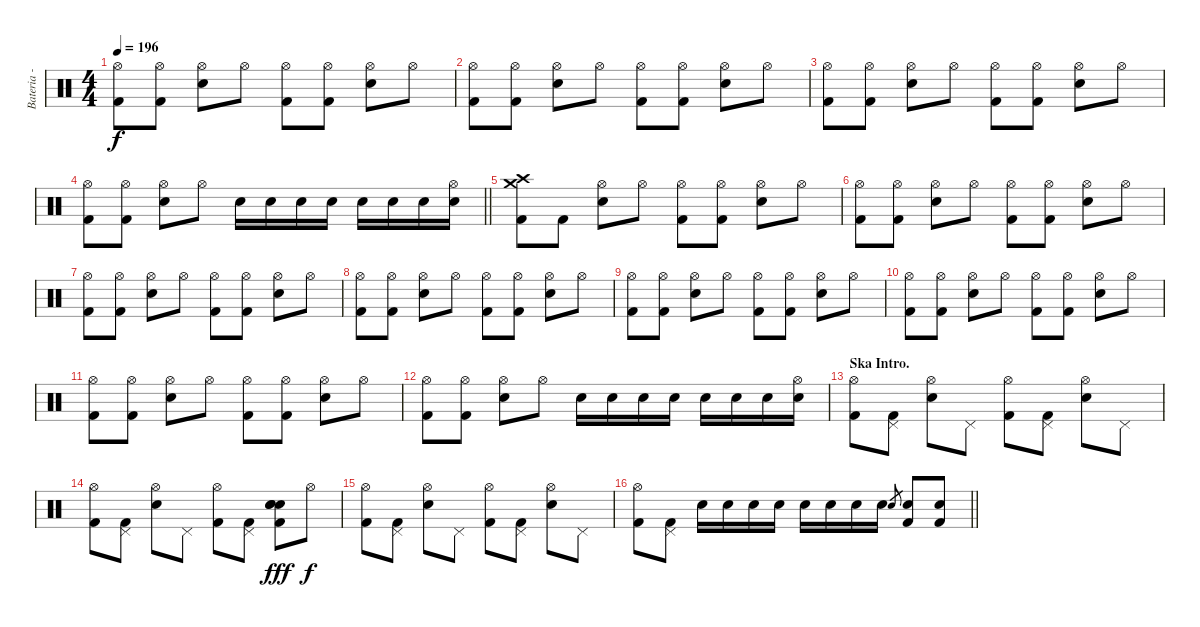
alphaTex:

\track ("Bateria - Larzon" "Bateria - ") {instrument percussion}
\staff {score}
\articulation defaults
\ts (4 4)
\tempo 196
\clef neutral
\ks c
("Kick (hit) 2" "Hi-Hat (open)").8{dy f} ("Kick (hit) 2" "Hi-Hat (open)").8 ("Snare (hit) 2" "Hi-Hat (open)").8 "Hi-Hat (open)".8 ("Kick (hit) 2" "Hi-Hat (open)").8 ("Kick (hit) 2" "Hi-Hat (open)").8 ("Snare (hit) 2" "Hi-Hat (open)").8 "Hi-Hat (open)".8 |
("Kick (hit) 2" "Hi-Hat (open)").8 ("Kick (hit) 2" "Hi-Hat (open)").8 ("Snare (hit) 2" "Hi-Hat (open)").8 "Hi-Hat (open)".8 ("Kick (hit) 2" "Hi-Hat (open)").8 ("Kick (hit) 2" "Hi-Hat (open)").8 ("Snare (hit) 2" "Hi-Hat (open)").8 "Hi-Hat (open)".8 |
("Kick (hit) 2" "Hi-Hat (open)").8 ("Kick (hit) 2" "Hi-Hat (open)").8 ("Snare (hit) 2" "Hi-Hat (open)").8 "Hi-Hat (open)".8 ("Kick (hit) 2" "Hi-Hat (open)").8 ("Kick (hit) 2" "Hi-Hat (open)").8 ("Snare (hit) 2" "Hi-Hat (open)").8 "Hi-Hat (open)".8 |
\barLineRight lightlight
("Kick (hit) 2" "Hi-Hat (open)").8 ("Kick (hit) 2" "Hi-Hat (open)").8 ("Snare (hit) 2" "Hi-Hat (open)").8 "Hi-Hat (open)".8 "Snare (hit) 2".16 "Snare (hit) 2".16 "Snare (hit) 2".16 "Snare (hit) 2".16 "Snare (hit) 2".16 "Snare (hit) 2".16 "Snare (hit) 2".16 ("Snare (hit) 2" "Hi-Hat (open)").16 |
("Kick (hit) 2" "Crash high (hit)" "Crash medium (hit)").8 "Kick (hit) 2".8 ("Snare (hit) 2" "Hi-Hat (open)").8 "Hi-Hat (open)".8 ("Kick (hit) 2" "Hi-Hat (open)").8 ("Kick (hit) 2" "Hi-Hat (open)").8 ("Snare (hit) 2" "Hi-Hat (open)").8 "Hi-Hat (open)".8 |
("Kick (hit) 2" "Hi-Hat (open)").8 ("Kick (hit) 2" "Hi-Hat (open)").8 ("Snare (hit) 2" "Hi-Hat (open)").8 "Hi-Hat (open)".8 ("Kick (hit) 2" "Hi-Hat (open)").8 ("Kick (hit) 2" "Hi-Hat (open)").8 ("Snare (hit) 2" "Hi-Hat (open)").8 "Hi-Hat (open)".8 |
("Kick (hit) 2" "Hi-Hat (open)").8 ("Kick (hit) 2" "Hi-Hat (open)").8 ("Snare (hit) 2" "Hi-Hat (open)").8 "Hi-Hat (open)".8 ("Kick (hit) 2" "Hi-Hat (open)").8 ("Kick (hit) 2" "Hi-Hat (open)").8 ("Snare (hit) 2" "Hi-Hat (open)").8 "Hi-Hat (open)".8 |
("Kick (hit) 2" "Hi-Hat (open)").8 ("Kick (hit) 2" "Hi-Hat (open)").8 ("Snare (hit) 2" "Hi-Hat (open)").8 "Hi-Hat (open)".8 ("Kick (hit) 2" "Hi-Hat (open)").8 ("Kick (hit) 2" "Hi-Hat (open)").8 ("Snare (hit) 2" "Hi-Hat (open)").8 "Hi-Hat (open)".8 |
("Kick (hit) 2" "Hi-Hat (open)").8 ("Kick (hit) 2" "Hi-Hat (open)").8 ("Snare (hit) 2" "Hi-Hat (open)").8 "Hi-Hat (open)".8 ("Kick (hit) 2" "Hi-Hat (open)").8 ("Kick (hit) 2" "Hi-Hat (open)").8 ("Snare (hit) 2" "Hi-Hat (open)").8 "Hi-Hat (open)".8 |
("Kick (hit) 2" "Hi-Hat (open)").8 ("Kick (hit) 2" "Hi-Hat (open)").8 ("Snare (hit) 2" "Hi-Hat (open)").8 "Hi-Hat (open)".8 ("Kick (hit) 2" "Hi-Hat (open)").8 ("Kick (hit) 2" "Hi-Hat (open)").8 ("Snare (hit) 2" "Hi-Hat (open)").8 "Hi-Hat (open)".8 |
("Kick (hit) 2" "Hi-Hat (open)").8 ("Kick (hit) 2" "Hi-Hat (open)").8 ("Snare (hit) 2" "Hi-Hat (open)").8 "Hi-Hat (open)".8 ("Kick (hit) 2" "Hi-Hat (open)").8 ("Kick (hit) 2" "Hi-Hat (open)").8 ("Snare (hit) 2" "Hi-Hat (open)").8 "Hi-Hat (open)".8 |
("Kick (hit) 2" "Hi-Hat (open)").8 ("Kick (hit) 2" "Hi-Hat (open)").8 ("Snare (hit) 2" "Hi-Hat (open)").8 "Hi-Hat (open)".8 "Snare (hit) 2".16 "Snare (hit) 2".16 "Snare (hit) 2".16 "Snare (hit) 2".16 "Snare (hit) 2".16 "Snare (hit) 2".16 "Snare (hit) 2".16 ("Snare (hit) 2" "Hi-Hat (open)").16 |
\section ("" "Ska Intro.")
("Kick (hit) 2" "Hi-Hat (open)").8 ("Kick (hit) 2" "Pedal Hi-Hat (hit)").8 ("Snare (hit) 2" "Hi-Hat (open)").8 "Pedal Hi-Hat (hit)".8 ("Kick (hit) 2" "Hi-Hat (open)").8 ("Kick (hit) 2" "Pedal Hi-Hat (hit)").8 ("Snare (hit) 2" "Hi-Hat (open)").8 "Pedal Hi-Hat (hit)".8 |
("Kick (hit) 2" "Hi-Hat (open)").8 ("Kick (hit) 2" "Pedal Hi-Hat (hit)").8 ("Snare (hit) 2" "Hi-Hat (open)").8 "Pedal Hi-Hat (hit)".8 ("Kick (hit) 2" "Hi-Hat (open)").8 ("Kick (hit) 2" "Pedal Hi-Hat (hit)").8 ("Snare (hit) 2" "Snare (hit) 2" "Electric Snare (hit)" "Kick (hit) 2").8{dy fff} "Hi-Hat (open)".8{dy f} |
("Kick (hit) 2" "Hi-Hat (open)").8 ("Kick (hit) 2" "Pedal Hi-Hat (hit)").8 ("Snare (hit) 2" "Hi-Hat (open)").8 "Pedal Hi-Hat (hit)".8 ("Kick (hit) 2" "Hi-Hat (open)").8 ("Kick (hit) 2" "Pedal Hi-Hat (hit)").8 ("Snare (hit) 2" "Hi-Hat (open)").8 "Pedal Hi-Hat (hit)".8 |
\barLineRight lightlight
("Kick (hit) 2" "Hi-Hat (open)").8 ("Kick (hit) 2" "Pedal Hi-Hat (hit)").8 "Snare (hit) 2".16 "Snare (hit) 2".16 "Snare (hit) 2".16 "Snare (hit) 2".16 "Snare (hit) 2".16 "Snare (hit) 2".16 "Snare (hit) 2".16 "Snare (hit) 2".16 "Snare (hit) 2".8{gr} ("Kick (hit) 2" "Snare (hit) 2").8 ("Kick (hit) 2" "Snare (hit) 2").8
